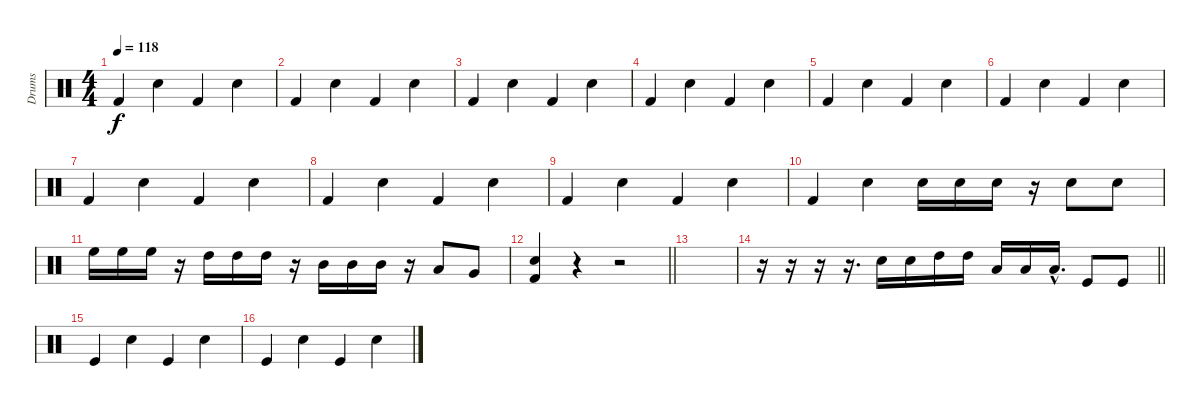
\track ("Drums" "Drums") {instrument percussion}
\staff {score}
\articulation defaults
\ts (4 4)
\tempo 118
\clef neutral
\ks c "Kick (hit) 2".4{dy f} "Snare (hit) 2".4 "Kick (hit) 2".4 "Snare (hit) 2".4
|
"Kick (hit) 2".4 "Snare (hit) 2".4 "Kick (hit) 2".4 "Snare (hit) 2".4 |
"Kick (hit) 2".4 "Snare (hit) 2".4 "Kick (hit) 2".4 "Snare (hit) 2".4 |
"Kick (hit) 2".4 "Snare (hit) 2".4 "Kick (hit) 2".4 "Snare (hit) 2".4 |
"Kick (hit) 2".4 "Snare (hit) 2".4 "Kick (hit) 2".4 "Snare (hit) 2".4 |
"Kick (hit) 2".4 "Snare (hit) 2".4 "Kick (hit) 2".4 "Snare (hit) 2".4 |
"Kick (hit) 2".4 "Snare (hit) 2".4 "Kick (hit) 2".4 "Snare (hit) 2".4 |
"Kick (hit) 2".4 "Snare (hit) 2".4 "Kick (hit) 2".4 "Snare (hit) 2".4 |
"Kick (hit) 2".4 "Snare (hit) 2".4 "Kick (hit) 2".4 "Snare (hit) 2".4 |
"Kick (hit) 2".4 "Snare (hit) 2".4 "Snare (hit) 2".16 "Snare (hit) 2".16 "Snare (hit) 2".16 r.16 "Snare (hit) 2".8 "Snare (hit) 2".8 |
"High Floor Tom (hit)".16 "High Floor Tom (hit)".16 "High Floor Tom (hit)".16 r.16 "High Tom (hit)".16 "High Tom (hit)".16 "High Tom (hit)".16 r.16 "Mid Tom (hit)".16 "Mid Tom (hit)".16 "Mid Tom (hit)".16 r.16 "Low Tom (hit)".8 "Very Low Tom (hit)".8 |
\barLineRight lightlight
("Snare (hit) 2" "Kick (hit) 2").4 r.4 r.2 |
|
\barLineRight lightlight
r.16 r.16 r.16 r.16{d} "Snare (hit) 2".16 "Snare (hit) 2".16 "High Tom (hit)".16 "High Tom (hit)".16 "Low Floor Tom (hit)".16 "Low Floor Tom (hit)".16 "Low Floor Tom (hit)"{hac}.16{d} "Kick (hit)".8 "Kick (hit)".8 |
"Kick (hit)".4 "Snare (hit) 2".4 "Kick (hit)".4 "Snare (hit) 2".4 |
"Kick (hit)".4 "Snare (hit) 2".4 "Kick (hit)".4 "Snare (hit) 2".4
